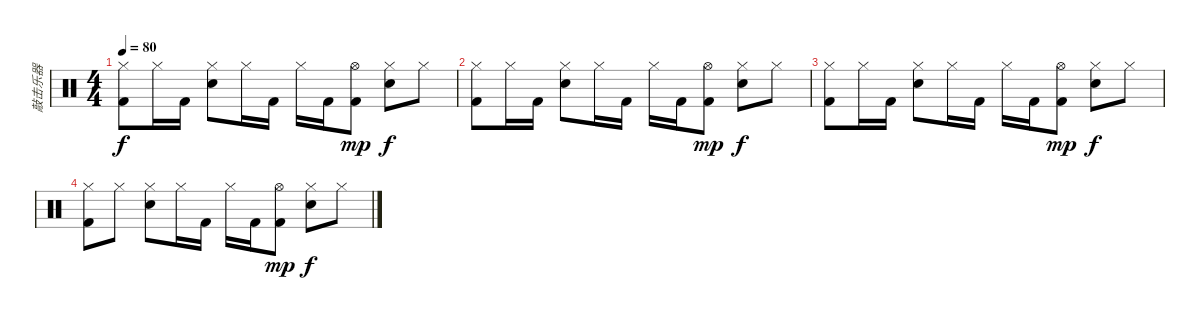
\track ("敲击乐器" "敲击乐器") {instrument percussion}
\staff {score}
\articulation defaults
\ts (4 4)
\tempo 80
\clef neutral
\ks c
("Hi-Hat (closed)" "Kick (hit) 2").8{dy f volume 11} "Hi-Hat (closed)".16 "Kick (hit) 2".16 ("Hi-Hat (closed)" "Electric Snare (hit)").8 "Hi-Hat (closed)".16 "Kick (hit) 2".16 "Hi-Hat (closed)".16 "Kick (hit) 2".16 ("Hi-Hat (open)" "Kick (hit) 2").8{dy mp} ("Hi-Hat (closed)" "Electric Snare (hit)").8{dy f} "Hi-Hat (closed)".8 |
("Hi-Hat (closed)" "Kick (hit) 2").8 "Hi-Hat (closed)".16 "Kick (hit) 2".16 ("Hi-Hat (closed)" "Electric Snare (hit)").8 "Hi-Hat (closed)".16 "Kick (hit) 2".16 "Hi-Hat (closed)".16 "Kick (hit) 2".16 ("Hi-Hat (open)" "Kick (hit) 2").8{dy mp} ("Hi-Hat (closed)" "Electric Snare (hit)").8{dy f} "Hi-Hat (closed)".8 |
("Hi-Hat (closed)" "Kick (hit) 2").8 "Hi-Hat (closed)".16 "Kick (hit) 2".16 ("Hi-Hat (closed)" "Electric Snare (hit)").8 "Hi-Hat (closed)".16 "Kick (hit) 2".16 "Hi-Hat (closed)".16 "Kick (hit) 2".16 ("Hi-Hat (open)" "Kick (hit) 2").8{dy mp} ("Hi-Hat (closed)" "Electric Snare (hit)").8{dy f} "Hi-Hat (closed)".8 |
("Hi-Hat (closed)" "Kick (hit) 2").8 "Hi-Hat (closed)".8 ("Hi-Hat (closed)" "Electric Snare (hit)").8 "Hi-Hat (closed)".16 "Kick (hit) 2".16 "Hi-Hat (closed)".16 "Kick (hit) 2".16 ("Hi-Hat (open)" "Kick (hit) 2").8{dy mp} ("Hi-Hat (closed)" "Electric Snare (hit)").8{dy f} "Hi-Hat (closed)".8
